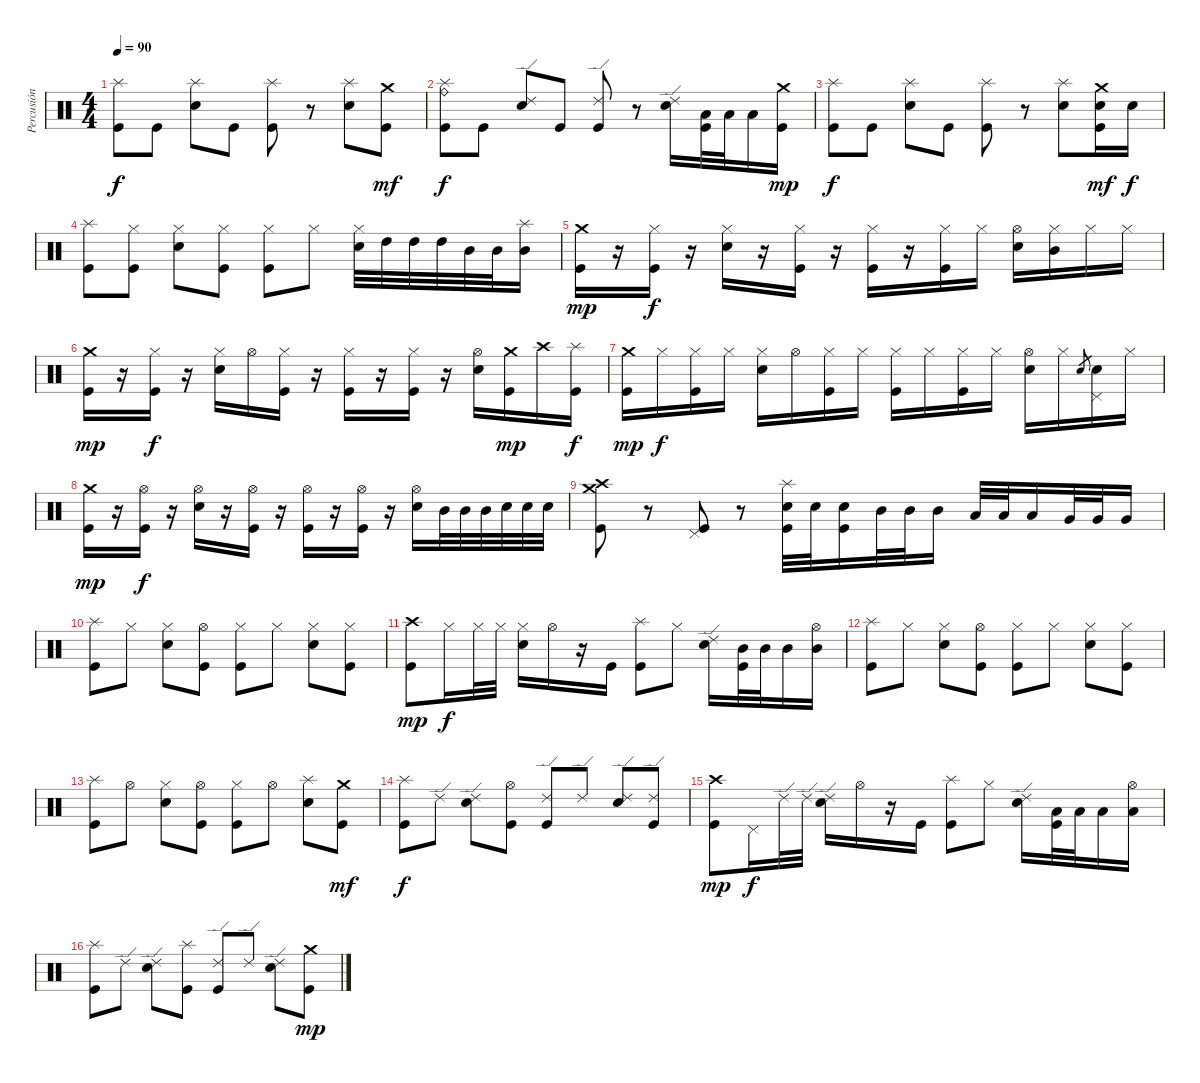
\track ("Percusión" "Percusión") {instrument percussion}
\staff {score}
\articulation defaults
\ts (4 4)
\tempo 90
\clef neutral
\ks c
("Splash (hit)" "Kick (hit)").8{dy f} "Kick (hit)".8 ("Splash (hit)" "Electric Snare (hit)").8 "Kick (hit)".8 ("Splash (hit)" "Kick (hit)").8 r.8 ("Splash (hit)" "Electric Snare (hit)").8 ("Crash medium (hit)" "Kick (hit)").8{dy mf} |
("Ride (bell)" "Splash (hit)" "Kick (hit)").8{dy f} "Kick (hit)".8 ("Ride (edge) 2" "Electric Snare (hit)").8 "Kick (hit)".8 ("Ride (edge) 2" "Kick (hit)").8 r.8 ("Ride (edge) 2" "Electric Snare (hit)").16 ("Low Floor Tom (hit)" "Kick (hit)").32 "Low Floor Tom (hit)".32 "Low Floor Tom (hit)".16 ("Crash medium (hit)" "Kick (hit)").16{dy mp} |
("Splash (hit)" "Kick (hit)").8{dy f} "Kick (hit)".8 ("Splash (hit)" "Electric Snare (hit)").8 "Kick (hit)".8 ("Splash (hit)" "Kick (hit)").8 r.8 ("Splash (hit)" "Electric Snare (hit)").8 ("Crash medium (hit)" "Electric Snare (hit)" "Kick (hit)").16{dy mf} "Electric Snare (hit)".16{dy f} |
("Splash (hit)" "Kick (hit)").8 ("Hi-Hat (closed)" "Kick (hit)").8 ("Hi-Hat (closed)" "Electric Snare (hit)").8 ("Hi-Hat (closed)" "Kick (hit)").8 ("Hi-Hat (closed)" "Kick (hit)").8 "Hi-Hat (closed)".8 ("Hi-Hat (closed)" "Electric Snare (hit)").32 "High Tom (hit)".32 "High Tom (hit)".32 "High Tom (hit)".32 "Mid Tom (hit)".32 "Mid Tom (hit)".32 ("Splash (hit)" "Mid Tom (hit)").16 |
("Crash medium (hit)" "Kick (hit)").16{dy mp} r.16 ("Hi-Hat (closed)" "Kick (hit)").16{dy f} r.16 ("Hi-Hat (closed)" "Electric Snare (hit)").16 r.16 ("Hi-Hat (closed)" "Kick (hit)").16 r.16 ("Hi-Hat (closed)" "Kick (hit)").16 r.16 ("Hi-Hat (closed)" "Kick (hit)").16 "Hi-Hat (closed)".16 ("Hi-Hat (open)" "Electric Snare (hit)").16 ("Hi-Hat (closed)" "Mid Tom (hit)").16 "Hi-Hat (closed)".16 "Hi-Hat (closed)".16 |
("Crash medium (hit)" "Kick (hit)").16{dy mp} r.16 ("Hi-Hat (closed)" "Kick (hit)").16{dy f} r.16 ("Hi-Hat (closed)" "Electric Snare (hit)").16 "Hi-Hat (open)".16 ("Hi-Hat (closed)" "Kick (hit)").16 r.16 ("Hi-Hat (closed)" "Kick (hit)").16 r.16 ("Hi-Hat (closed)" "Kick (hit)").16 r.16 ("Hi-Hat (open)" "Electric Snare (hit)").16 ("Crash medium (hit)" "Kick (hit)").16{dy mp} "Crash high (hit)".16 ("Splash (hit)" "Kick (hit)").16{dy f} |
("Crash medium (hit)" "Kick (hit)").16{dy mp} "Hi-Hat (closed)".16{dy f} ("Hi-Hat (closed)" "Kick (hit)").16 "Hi-Hat (closed)".16 ("Hi-Hat (closed)" "Electric Snare (hit)").16 "Hi-Hat (open)".16 ("Hi-Hat (closed)" "Kick (hit)").16 "Hi-Hat (closed)".16 ("Hi-Hat (closed)" "Kick (hit)").16 "Hi-Hat (closed)".16 ("Hi-Hat (closed)" "Kick (hit)").16 "Hi-Hat (closed)".16 ("Hi-Hat (open)" "Electric Snare (hit)").16 "Hi-Hat (closed)".16 "Electric Snare (hit)".8{gr} ("Pedal Hi-Hat (hit)" "Electric Snare (hit)").16 "Hi-Hat (closed)".16 |
("Crash medium (hit)" "Kick (hit)").16{dy mp} r.16 ("Hi-Hat (open)" "Kick (hit)").16{dy f} r.16 ("Hi-Hat (open)" "Electric Snare (hit)").16 r.16 ("Hi-Hat (open)" "Kick (hit)").16 r.16 ("Hi-Hat (open)" "Kick (hit)").16 r.16 ("Hi-Hat (open)" "Kick (hit)").16 r.16 ("Hi-Hat (open)" "Electric Snare (hit)").16 "Mid Tom (hit)".32 "Mid Tom (hit)".32 "Mid Tom (hit)".32 "Electric Snare (hit)".32 "Electric Snare (hit)".32 "Electric Snare (hit)".32 |
("Crash medium (hit)" "Crash high (hit)" "Kick (hit)").8 r.8 ("Pedal Hi-Hat (hit)" "Kick (hit)").8 r.8 ("Splash (hit)" "Electric Snare (hit)" "Kick (hit)").32 "Electric Snare (hit)".32 ("Electric Snare (hit)" "Kick (hit)").16 "Mid Tom (hit)".32 "Mid Tom (hit)".32 "Mid Tom (hit)".16 "Low Tom (hit)".32 "Low Tom (hit)".32 "Low Tom (hit)".16 "Very Low Tom (hit)".32 "Very Low Tom (hit)".32 "Very Low Tom (hit)".16 |
("Splash (hit)" "Kick (hit)").8 "Hi-Hat (closed)".8 ("Hi-Hat (closed)" "Electric Snare (hit)").8 ("Hi-Hat (open)" "Kick (hit)").8 ("Hi-Hat (closed)" "Kick (hit)").8 "Hi-Hat (closed)".8 ("Hi-Hat (closed)" "Electric Snare (hit)").8 ("Hi-Hat (closed)" "Kick (hit)").8 |
("Crash high (hit)" "Kick (hit)").8{dy mp} "Hi-Hat (closed)".16{dy f} "Hi-Hat (closed)".32 "Hi-Hat (closed)".32 ("Hi-Hat (closed)" "Electric Snare (hit)").16 "Hi-Hat (open)".16 r.16 "Kick (hit)".16 ("Splash (hit)" "Kick (hit)").8 "Hi-Hat (closed)".8 ("Ride (edge) 2" "Electric Snare (hit)").16 ("Mid Tom (hit)" "Kick (hit)").32 "Mid Tom (hit)".32 "Mid Tom (hit)".16 ("Hi-Hat (open)" "Mid Tom (hit)").16 |
("Splash (hit)" "Kick (hit)").8 "Hi-Hat (closed)".8 ("Hi-Hat (closed)" "Electric Snare (hit)").8 ("Hi-Hat (open)" "Kick (hit)").8 ("Hi-Hat (closed)" "Kick (hit)").8 "Hi-Hat (closed)".8 ("Hi-Hat (closed)" "Electric Snare (hit)").8 ("Hi-Hat (closed)" "Kick (hit)").8 |
("Splash (hit)" "Kick (hit)").8 "Hi-Hat (open)".8 ("Hi-Hat (closed)" "Electric Snare (hit)").8 ("Hi-Hat (open)" "Kick (hit)").8 ("Hi-Hat (closed)" "Kick (hit)").8 "Hi-Hat (open)".8 ("Splash (hit)" "Electric Snare (hit)").8 ("Crash medium (hit)" "Kick (hit)").8{dy mf} |
("Splash (hit)" "Kick (hit)").8{dy f} "Ride (edge) 2".8 ("Ride (edge) 2" "Electric Snare (hit)").8 ("Hi-Hat (open)" "Kick (hit)").8 ("Ride (edge) 2" "Kick (hit)").8 "Ride (edge) 2".8 ("Ride (edge) 2" "Electric Snare (hit)").8 ("Ride (edge) 2" "Kick (hit)").8 |
("Crash high (hit)" "Kick (hit)").8{dy mp} "Pedal Hi-Hat (hit)".16{dy f} "Ride (edge) 2".32 "Ride (edge) 2".32 ("Ride (edge) 2" "Electric Snare (hit)").16 "Hi-Hat (open)".16 r.16 "Kick (hit)".16 ("Splash (hit)" "Kick (hit)").8 "Hi-Hat (closed)".8 ("Ride (edge) 2" "Electric Snare (hit)").16 ("Low Tom (hit)" "Kick (hit)").32 "Low Tom (hit)".32 "Low Tom (hit)".16 ("Hi-Hat (open)" "Low Tom (hit)").16 |
("Splash (hit)" "Kick (hit)").8 "Ride (edge) 2".8 ("Ride (edge) 2" "Electric Snare (hit)").8 ("Splash (hit)" "Kick (hit)").8 ("Ride (edge) 2" "Kick (hit)").8 "Ride (edge) 2".8 ("Ride (edge) 2" "Electric Snare (hit)").8 ("Crash medium (hit)" "Kick (hit)").8{dy mp}
